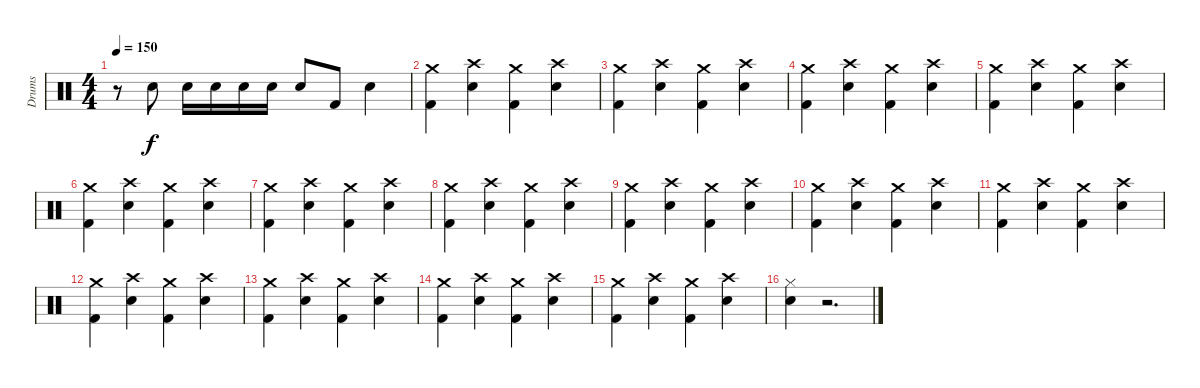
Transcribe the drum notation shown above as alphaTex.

\track ("Drums" "Drums") {instrument percussion}
\staff {score}
\articulation defaults
\ts (4 4)
\tempo 150
\clef neutral
\ks c
r.8{dy f} "Electric Snare (hit)".8 "Snare (hit) 2".16 "Snare (hit) 2".16 "Snare (hit) 2".16 "Snare (hit) 2".16 "Snare (hit) 2".8 "Kick (hit) 2".8 "Snare (hit) 2".4 |
("Crash medium (hit)" "Kick (hit) 2").4 ("Crash high (hit)" "Snare (hit) 2").4 ("Crash medium (hit)" "Kick (hit) 2").4 ("Crash high (hit)" "Snare (hit) 2").4 |
("Crash medium (hit)" "Kick (hit) 2").4 ("Crash high (hit)" "Snare (hit) 2").4 ("Crash medium (hit)" "Kick (hit) 2").4 ("Crash high (hit)" "Snare (hit) 2").4 |
("Crash medium (hit)" "Kick (hit) 2").4 ("Crash high (hit)" "Snare (hit) 2").4 ("Crash medium (hit)" "Kick (hit) 2").4 ("Crash high (hit)" "Snare (hit) 2").4 |
("Crash medium (hit)" "Kick (hit) 2").4 ("Crash high (hit)" "Snare (hit) 2").4 ("Crash medium (hit)" "Kick (hit) 2").4 ("Crash high (hit)" "Snare (hit) 2").4 |
("Crash medium (hit)" "Kick (hit) 2").4 ("Crash high (hit)" "Snare (hit) 2").4 ("Crash medium (hit)" "Kick (hit) 2").4 ("Crash high (hit)" "Snare (hit) 2").4 |
("Crash medium (hit)" "Kick (hit) 2").4 ("Crash high (hit)" "Snare (hit) 2").4 ("Crash medium (hit)" "Kick (hit) 2").4 ("Crash high (hit)" "Snare (hit) 2").4 |
("Crash medium (hit)" "Kick (hit) 2").4 ("Crash high (hit)" "Snare (hit) 2").4 ("Crash medium (hit)" "Kick (hit) 2").4 ("Crash high (hit)" "Snare (hit) 2").4 |
("Crash medium (hit)" "Kick (hit) 2").4 ("Crash high (hit)" "Snare (hit) 2").4 ("Crash medium (hit)" "Kick (hit) 2").4 ("Crash high (hit)" "Snare (hit) 2").4 |
("Crash medium (hit)" "Kick (hit) 2").4 ("Crash high (hit)" "Snare (hit) 2").4 ("Crash medium (hit)" "Kick (hit) 2").4 ("Crash high (hit)" "Snare (hit) 2").4 |
("Crash medium (hit)" "Kick (hit) 2").4 ("Crash high (hit)" "Snare (hit) 2").4 ("Crash medium (hit)" "Kick (hit) 2").4 ("Crash high (hit)" "Snare (hit) 2").4 |
("Crash medium (hit)" "Kick (hit) 2").4 ("Crash high (hit)" "Snare (hit) 2").4 ("Crash medium (hit)" "Kick (hit) 2").4 ("Crash high (hit)" "Snare (hit) 2").4 |
("Crash medium (hit)" "Kick (hit) 2").4 ("Crash high (hit)" "Snare (hit) 2").4 ("Crash medium (hit)" "Kick (hit) 2").4 ("Crash high (hit)" "Snare (hit) 2").4 |
("Crash medium (hit)" "Kick (hit) 2").4 ("Crash high (hit)" "Snare (hit) 2").4 ("Crash medium (hit)" "Kick (hit) 2").4 ("Crash high (hit)" "Snare (hit) 2").4 |
("Crash medium (hit)" "Kick (hit) 2").4 ("Crash high (hit)" "Snare (hit) 2").4 ("Crash medium (hit)" "Kick (hit) 2").4 ("Crash high (hit)" "Snare (hit) 2").4 |
("Hi-Hat (closed)" "Snare (hit) 2").4 r.2{d}
